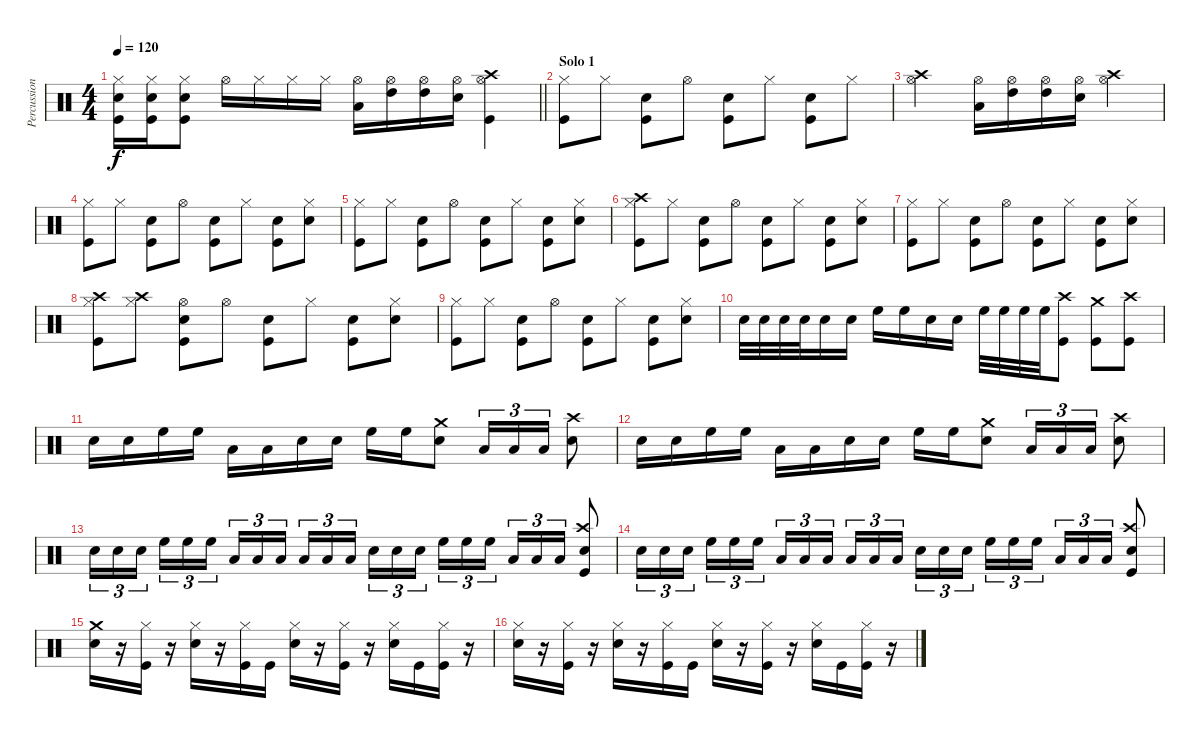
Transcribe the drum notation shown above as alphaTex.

\track ("Percussion" "Percussion") {instrument percussion}
\staff {score}
\articulation defaults
\ts (4 4)
\tempo 120
\clef neutral
\barLineRight lightlight
\ks c
("Hi-Hat (closed)" "Snare (hit) 2" "Kick (hit)").16{dy f} ("Hi-Hat (closed)" "Snare (hit) 2" "Kick (hit)").16 ("Hi-Hat (closed)" "Snare (hit) 2" "Kick (hit)").8 "Hi-Hat (open)".16 "Hi-Hat (closed)".16 "Hi-Hat (closed)".16 "Hi-Hat (closed)".16 ("Hi-Hat (open)" "Low Tom (hit)").16 ("Hi-Hat (open)" "High Tom (hit)").16 ("Hi-Hat (open)" "High Tom (hit)").16 ("Hi-Hat (open)" "Snare (hit) 2").16 ("Hi-Hat (open)" "Crash high (hit)" "Kick (hit)").4 |
\section ("" "Solo 1")
("Hi-Hat (closed)" "Kick (hit)").8 "Hi-Hat (closed)".8 ("Electric Snare (hit)" "Kick (hit)").8 "Hi-Hat (open)".8 ("Electric Snare (hit)" "Kick (hit)").8 "Hi-Hat (closed)".8 ("Electric Snare (hit)" "Kick (hit)").8 "Hi-Hat (closed)".8 |
("Crash high (hit)" "Hi-Hat (open)").2 ("Hi-Hat (open)" "Low Tom (hit)").16 ("Hi-Hat (open)" "High Tom (hit)").16 ("Hi-Hat (open)" "High Tom (hit)").16 ("Hi-Hat (open)" "Snare (hit) 2").16 ("Crash high (hit)" "Hi-Hat (open)").4 |
("Hi-Hat (closed)" "Kick (hit)").8 "Hi-Hat (closed)".8 ("Electric Snare (hit)" "Kick (hit)").8 "Hi-Hat (open)".8 ("Electric Snare (hit)" "Kick (hit)").8 "Hi-Hat (closed)".8 ("Electric Snare (hit)" "Kick (hit)").8 ("Hi-Hat (closed)" "Snare (hit) 2").8 |
("Hi-Hat (closed)" "Kick (hit)").8 "Hi-Hat (closed)".8 ("Electric Snare (hit)" "Kick (hit)").8 "Hi-Hat (open)".8 ("Electric Snare (hit)" "Kick (hit)").8 "Hi-Hat (closed)".8 ("Electric Snare (hit)" "Kick (hit)").8 ("Hi-Hat (closed)" "Snare (hit) 2").8 |
("Hi-Hat (closed)" "Crash high (hit)" "Kick (hit)").8 "Hi-Hat (closed)".8 ("Electric Snare (hit)" "Kick (hit)").8 "Hi-Hat (open)".8 ("Electric Snare (hit)" "Kick (hit)").8 "Hi-Hat (closed)".8 ("Electric Snare (hit)" "Kick (hit)").8 ("Hi-Hat (closed)" "Snare (hit) 2").8 |
("Hi-Hat (closed)" "Kick (hit)").8 "Hi-Hat (closed)".8 ("Electric Snare (hit)" "Kick (hit)").8 "Hi-Hat (open)".8 ("Electric Snare (hit)" "Kick (hit)").8 "Hi-Hat (closed)".8 ("Electric Snare (hit)" "Kick (hit)").8 ("Hi-Hat (closed)" "Snare (hit) 2").8 |
("Hi-Hat (closed)" "Crash high (hit)" "Kick (hit)").8 ("Hi-Hat (closed)" "Crash high (hit)").8 ("Hi-Hat (open)" "Electric Snare (hit)" "Kick (hit)").8 "Hi-Hat (open)".8 ("Electric Snare (hit)" "Kick (hit)").8 "Hi-Hat (closed)".8 ("Electric Snare (hit)" "Kick (hit)").8 ("Hi-Hat (closed)" "Snare (hit) 2").8 |
("Hi-Hat (closed)" "Kick (hit)").8 "Hi-Hat (closed)".8 ("Electric Snare (hit)" "Kick (hit)").8 "Hi-Hat (open)".8 ("Electric Snare (hit)" "Kick (hit)").8 "Hi-Hat (closed)".8 ("Electric Snare (hit)" "Kick (hit)").8 ("Hi-Hat (closed)" "Snare (hit) 2").8 |
"Electric Snare (hit)".32 "Electric Snare (hit)".32 "Electric Snare (hit)".32 "Electric Snare (hit)".32 "Electric Snare (hit)".16 "Electric Snare (hit)".16 "High Floor Tom (hit)".16 "High Floor Tom (hit)".16 "Electric Snare (hit)".16 "Electric Snare (hit)".16 "High Floor Tom (hit)".32 "High Floor Tom (hit)".32 "High Floor Tom (hit)".32 "High Floor Tom (hit)".32 ("Crash high (hit)" "Kick (hit)").8 ("Crash medium (hit)" "Kick (hit)").8 ("Crash high (hit)" "Kick (hit)").8 |
"Electric Snare (hit)".16 "Electric Snare (hit)".16 "High Floor Tom (hit)".16 "High Floor Tom (hit)".16 "Low Tom (hit)".16 "Low Tom (hit)".16 "Electric Snare (hit)".16 "Electric Snare (hit)".16 "High Floor Tom (hit)".16 "High Floor Tom (hit)".16 ("Crash medium (hit)" "Snare (hit) 2").8 "Low Floor Tom (hit)".16{tu (3 2)} "Low Floor Tom (hit)".16{tu (3 2)} "Low Floor Tom (hit)".16{tu (3 2)} ("Crash high (hit)" "Snare (hit) 2").8 |
"Electric Snare (hit)".16 "Electric Snare (hit)".16 "High Floor Tom (hit)".16 "High Floor Tom (hit)".16 "Low Tom (hit)".16 "Low Tom (hit)".16 "Electric Snare (hit)".16 "Electric Snare (hit)".16 "High Floor Tom (hit)".16 "High Floor Tom (hit)".16 ("Crash medium (hit)" "Snare (hit) 2").8 "Low Floor Tom (hit)".16{tu (3 2)} "Low Floor Tom (hit)".16{tu (3 2)} "Low Floor Tom (hit)".16{tu (3 2)} ("Crash high (hit)" "Snare (hit) 2").8 |
"Electric Snare (hit)".16{tu (3 2)} "Electric Snare (hit)".16{tu (3 2)} "Electric Snare (hit)".16{tu (3 2) beam splitsecondary} "High Floor Tom (hit)".16{tu (3 2)} "High Floor Tom (hit)".16{tu (3 2)} "High Floor Tom (hit)".16{tu (3 2)} "Low Tom (hit)".16{tu (3 2)} "Low Tom (hit)".16{tu (3 2)} "Low Tom (hit)".16{tu (3 2) beam splitsecondary} "Low Tom (hit)".16{tu (3 2)} "Low Tom (hit)".16{tu (3 2)} "Low Tom (hit)".16{tu (3 2)} "Electric Snare (hit)".16{tu (3 2)} "Electric Snare (hit)".16{tu (3 2)} "Electric Snare (hit)".16{tu (3 2) beam splitsecondary} "High Floor Tom (hit)".16{tu (3 2)} "High Floor Tom (hit)".16{tu (3 2)} "High Floor Tom (hit)".16{tu (3 2)} "Low Tom (hit)".16{tu (3 2)} "Low Tom (hit)".16{tu (3 2)} "Low Tom (hit)".16{tu (3 2)} ("Kick (hit)" "Electric Snare (hit)" "Crash high (hit)").8 |
"Electric Snare (hit)".16{tu (3 2)} "Electric Snare (hit)".16{tu (3 2)} "Electric Snare (hit)".16{tu (3 2) beam splitsecondary} "High Floor Tom (hit)".16{tu (3 2)} "High Floor Tom (hit)".16{tu (3 2)} "High Floor Tom (hit)".16{tu (3 2)} "Low Tom (hit)".16{tu (3 2)} "Low Tom (hit)".16{tu (3 2)} "Low Tom (hit)".16{tu (3 2) beam splitsecondary} "Low Tom (hit)".16{tu (3 2)} "Low Tom (hit)".16{tu (3 2)} "Low Tom (hit)".16{tu (3 2)} "Electric Snare (hit)".16{tu (3 2)} "Electric Snare (hit)".16{tu (3 2)} "Electric Snare (hit)".16{tu (3 2) beam splitsecondary} "High Floor Tom (hit)".16{tu (3 2)} "High Floor Tom (hit)".16{tu (3 2)} "High Floor Tom (hit)".16{tu (3 2)} "Low Tom (hit)".16{tu (3 2)} "Low Tom (hit)".16{tu (3 2)} "Low Tom (hit)".16{tu (3 2)} ("Kick (hit)" "Electric Snare (hit)" "Crash high (hit)").8 |
("Crash medium (hit)" "Electric Snare (hit)").16 r.16 ("Hi-Hat (closed)" "Kick (hit)").16 r.16 ("Hi-Hat (closed)" "Electric Snare (hit)").16 r.16 ("Hi-Hat (closed)" "Kick (hit)").16 "Kick (hit)".16 ("Hi-Hat (closed)" "Electric Snare (hit)").16 r.16 ("Hi-Hat (closed)" "Kick (hit)").16 r.16 ("Hi-Hat (closed)" "Electric Snare (hit)").16 "Kick (hit)".16 ("Hi-Hat (closed)" "Kick (hit)").16 r.16 |
("Hi-Hat (closed)" "Electric Snare (hit)").16 r.16 ("Hi-Hat (closed)" "Kick (hit)").16 r.16 ("Hi-Hat (closed)" "Electric Snare (hit)").16 r.16 ("Hi-Hat (closed)" "Kick (hit)").16 "Kick (hit)".16 ("Hi-Hat (closed)" "Electric Snare (hit)").16 r.16 ("Hi-Hat (closed)" "Kick (hit)").16 r.16 ("Hi-Hat (closed)" "Electric Snare (hit)").16 "Kick (hit)".16 ("Hi-Hat (closed)" "Kick (hit)").16 r.16
